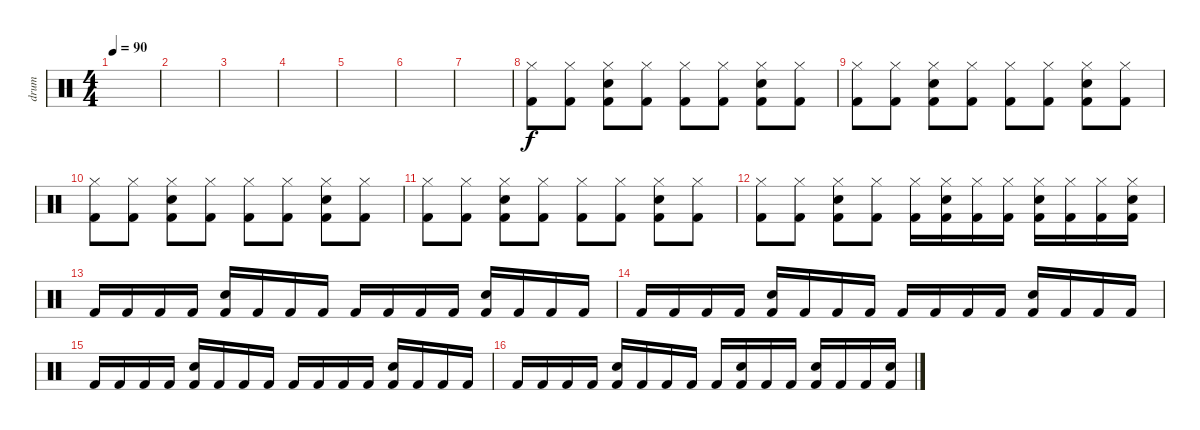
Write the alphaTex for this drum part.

\track ("drum" "drum") {instrument percussion}
\staff {score}
\articulation defaults
\ts (4 4)
\tempo 90
\clef neutral
\ks c
|
|
|
|
|
|
|
("Kick (hit) 2" "Hi-Hat (closed)").8{volume 3} ("Kick (hit) 2" "Hi-Hat (closed)").8 ("Kick (hit) 2" "Snare (hit) 2" "Hi-Hat (closed)").8{volume 6} ("Kick (hit) 2" "Hi-Hat (closed)").8 ("Kick (hit) 2" "Hi-Hat (closed)").8{volume 9} ("Kick (hit) 2" "Hi-Hat (closed)").8 ("Kick (hit) 2" "Snare (hit) 2" "Hi-Hat (closed)").8{volume 13} ("Kick (hit) 2" "Hi-Hat (closed)").8 |
("Kick (hit) 2" "Hi-Hat (closed)").8 ("Kick (hit) 2" "Hi-Hat (closed)").8 ("Kick (hit) 2" "Snare (hit) 2" "Hi-Hat (closed)").8 ("Kick (hit) 2" "Hi-Hat (closed)").8 ("Kick (hit) 2" "Hi-Hat (closed)").8 ("Kick (hit) 2" "Hi-Hat (closed)").8 ("Kick (hit) 2" "Snare (hit) 2" "Hi-Hat (closed)").8 ("Kick (hit) 2" "Hi-Hat (closed)").8 |
("Kick (hit) 2" "Hi-Hat (closed)").8 ("Kick (hit) 2" "Hi-Hat (closed)").8 ("Kick (hit) 2" "Snare (hit) 2" "Hi-Hat (closed)").8 ("Kick (hit) 2" "Hi-Hat (closed)").8 ("Kick (hit) 2" "Hi-Hat (closed)").8 ("Kick (hit) 2" "Hi-Hat (closed)").8 ("Kick (hit) 2" "Snare (hit) 2" "Hi-Hat (closed)").8 ("Kick (hit) 2" "Hi-Hat (closed)").8 |
("Kick (hit) 2" "Hi-Hat (closed)").8 ("Kick (hit) 2" "Hi-Hat (closed)").8 ("Kick (hit) 2" "Snare (hit) 2" "Hi-Hat (closed)").8 ("Kick (hit) 2" "Hi-Hat (closed)").8 ("Kick (hit) 2" "Hi-Hat (closed)").8 ("Kick (hit) 2" "Hi-Hat (closed)").8 ("Kick (hit) 2" "Snare (hit) 2" "Hi-Hat (closed)").8 ("Kick (hit) 2" "Hi-Hat (closed)").8 |
("Kick (hit) 2" "Hi-Hat (closed)").8 ("Kick (hit) 2" "Hi-Hat (closed)").8 ("Kick (hit) 2" "Snare (hit) 2" "Hi-Hat (closed)").8 ("Kick (hit) 2" "Hi-Hat (closed)").8 ("Kick (hit) 2" "Hi-Hat (closed)").16 ("Kick (hit) 2" "Snare (hit) 2" "Hi-Hat (closed)").16 ("Kick (hit) 2" "Hi-Hat (closed)").16 ("Kick (hit) 2" "Hi-Hat (closed)").16 ("Kick (hit) 2" "Snare (hit) 2" "Hi-Hat (closed)").16 ("Kick (hit) 2" "Hi-Hat (closed)").16 ("Kick (hit) 2" "Hi-Hat (closed)").16 ("Kick (hit) 2" "Snare (hit) 2" "Hi-Hat (closed)").16 |
"Kick (hit) 2".16 "Kick (hit) 2".16 "Kick (hit) 2".16 "Kick (hit) 2".16 ("Snare (hit) 2" "Kick (hit) 2").16 "Kick (hit) 2".16 "Kick (hit) 2".16 "Kick (hit) 2".16 "Kick (hit) 2".16 "Kick (hit) 2".16 "Kick (hit) 2".16 "Kick (hit) 2".16 ("Snare (hit) 2" "Kick (hit) 2").16 "Kick (hit) 2".16 "Kick (hit) 2".16 "Kick (hit) 2".16 |
"Kick (hit) 2".16 "Kick (hit) 2".16 "Kick (hit) 2".16 "Kick (hit) 2".16 ("Snare (hit) 2" "Kick (hit) 2").16 "Kick (hit) 2".16 "Kick (hit) 2".16 "Kick (hit) 2".16 "Kick (hit) 2".16 "Kick (hit) 2".16 "Kick (hit) 2".16 "Kick (hit) 2".16 ("Snare (hit) 2" "Kick (hit) 2").16 "Kick (hit) 2".16 "Kick (hit) 2".16 "Kick (hit) 2".16 |
"Kick (hit) 2".16 "Kick (hit) 2".16 "Kick (hit) 2".16 "Kick (hit) 2".16 ("Snare (hit) 2" "Kick (hit) 2").16 "Kick (hit) 2".16 "Kick (hit) 2".16 "Kick (hit) 2".16 "Kick (hit) 2".16 "Kick (hit) 2".16 "Kick (hit) 2".16 "Kick (hit) 2".16 ("Snare (hit) 2" "Kick (hit) 2").16 "Kick (hit) 2".16 "Kick (hit) 2".16 "Kick (hit) 2".16 |
"Kick (hit) 2".16 "Kick (hit) 2".16 "Kick (hit) 2".16 "Kick (hit) 2".16 ("Snare (hit) 2" "Kick (hit) 2").16 "Kick (hit) 2".16 "Kick (hit) 2".16 "Kick (hit) 2".16 "Kick (hit) 2".16 ("Snare (hit) 2" "Kick (hit) 2").16 "Kick (hit) 2".16 "Kick (hit) 2".16 ("Snare (hit) 2" "Kick (hit) 2").16 "Kick (hit) 2".16 "Kick (hit) 2".16 ("Snare (hit) 2" "Kick (hit) 2").16
